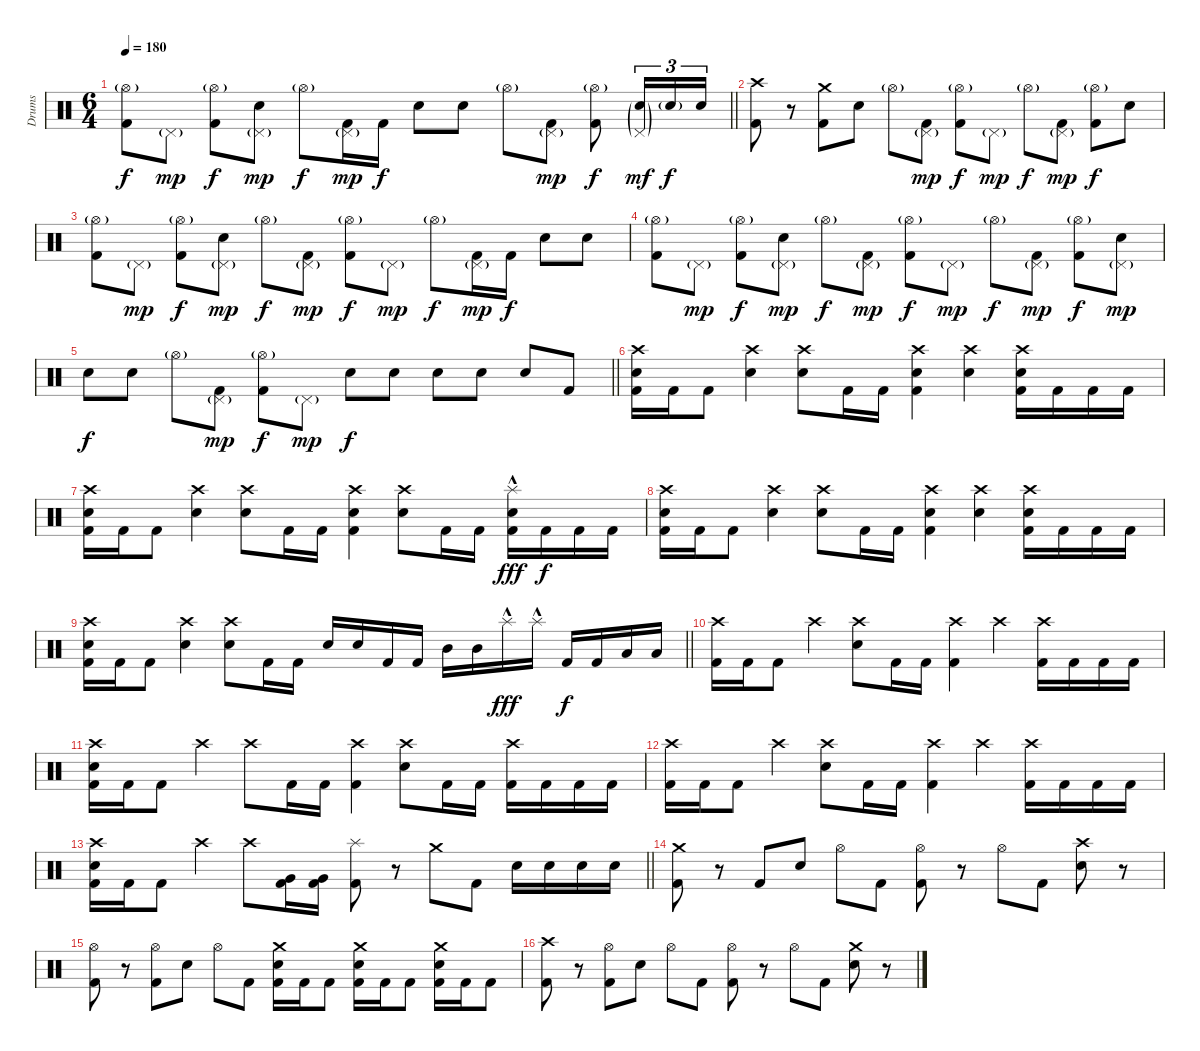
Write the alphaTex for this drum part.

\track ("Drums" "Drums") {instrument percussion}
\staff {score}
\articulation defaults
\ts (6 4)
\tempo 180
\clef neutral
\barLineRight lightlight
\ks c
("Hi-Hat (open)"{g} "Kick (hit) 2").8{dy f} "Pedal Hi-Hat (hit)"{g}.8{dy mp} ("Hi-Hat (open)"{g} "Kick (hit) 2").8{dy f} ("Pedal Hi-Hat (hit)"{g} "Electric Snare (hit)").8{dy mp} "Hi-Hat (open)"{g}.8{dy f} ("Pedal Hi-Hat (hit)"{g} "Kick (hit) 2").16{dy mp} "Kick (hit) 2".16{dy f} "Electric Snare (hit)".8 "Electric Snare (hit)".8 "Hi-Hat (open)"{g}.8 ("Pedal Hi-Hat (hit)"{g} "Kick (hit) 2").8{dy mp} ("Hi-Hat (open)"{g} "Kick (hit) 2").8{dy f} ("Pedal Hi-Hat (hit)"{g} "Electric Snare (hit)"{g}).16{tu (3 2) dy mf} "Electric Snare (hit)"{g}.16{tu (3 2) dy f} "Electric Snare (hit)".16{tu (3 2)} |
("Crash high (hit)" "Kick (hit) 2").8 r.8 ("Crash medium (hit)" "Kick (hit) 2").8 "Electric Snare (hit)".8 "Hi-Hat (open)"{g}.8 ("Pedal Hi-Hat (hit)"{g} "Kick (hit) 2").8{dy mp} ("Hi-Hat (open)"{g} "Kick (hit) 2").8{dy f} "Pedal Hi-Hat (hit)"{g}.8{dy mp} "Hi-Hat (open)"{g}.8{dy f} ("Pedal Hi-Hat (hit)"{g} "Kick (hit) 2").8{dy mp} ("Hi-Hat (open)"{g} "Kick (hit) 2").8{dy f} "Electric Snare (hit)".8 |
("Hi-Hat (open)"{g} "Kick (hit) 2").8 "Pedal Hi-Hat (hit)"{g}.8{dy mp} ("Hi-Hat (open)"{g} "Kick (hit) 2").8{dy f} ("Pedal Hi-Hat (hit)"{g} "Electric Snare (hit)").8{dy mp} "Hi-Hat (open)"{g}.8{dy f} ("Pedal Hi-Hat (hit)"{g} "Kick (hit) 2").8{dy mp} ("Hi-Hat (open)"{g} "Kick (hit) 2").8{dy f} "Pedal Hi-Hat (hit)"{g}.8{dy mp} "Hi-Hat (open)"{g}.8{dy f} ("Pedal Hi-Hat (hit)"{g} "Kick (hit) 2").16{dy mp} "Kick (hit) 2".16{dy f} "Electric Snare (hit)".8 "Electric Snare (hit)".8 |
("Hi-Hat (open)"{g} "Kick (hit) 2").8 "Pedal Hi-Hat (hit)"{g}.8{dy mp} ("Hi-Hat (open)"{g} "Kick (hit) 2").8{dy f} ("Pedal Hi-Hat (hit)"{g} "Electric Snare (hit)").8{dy mp} "Hi-Hat (open)"{g}.8{dy f} ("Pedal Hi-Hat (hit)"{g} "Kick (hit) 2").8{dy mp} ("Hi-Hat (open)"{g} "Kick (hit) 2").8{dy f} "Pedal Hi-Hat (hit)"{g}.8{dy mp} "Hi-Hat (open)"{g}.8{dy f} ("Pedal Hi-Hat (hit)"{g} "Kick (hit) 2").8{dy mp} ("Hi-Hat (open)"{g} "Kick (hit) 2").8{dy f} ("Pedal Hi-Hat (hit)"{g} "Electric Snare (hit)").8{dy mp} |
\barLineRight lightlight "Electric Snare (hit)".8{dy f} "Electric Snare (hit)".8 "Hi-Hat (open)"{g}.8
("Pedal Hi-Hat (hit)"{g} "Kick (hit) 2").8{dy mp} ("Hi-Hat (open)"{g} "Kick (hit) 2").8{dy f} "Pedal Hi-Hat (hit)"{g}.8{dy mp} "Electric Snare (hit)".8{dy f} "Electric Snare (hit)".8 "Electric Snare (hit)".8 "Electric Snare (hit)".8 "Electric Snare (hit)".8 "Kick (hit) 2".8 |
("Crash high (hit)" "Electric Snare (hit)" "Kick (hit) 2").16 "Kick (hit) 2".16 "Kick (hit) 2".8 ("Crash high (hit)" "Electric Snare (hit)").4 ("Crash high (hit)" "Electric Snare (hit)").8 "Kick (hit) 2".16 "Kick (hit) 2".16 ("Crash high (hit)" "Electric Snare (hit)" "Kick (hit) 2").4 ("Crash high (hit)" "Electric Snare (hit)").4 ("Crash high (hit)" "Electric Snare (hit)" "Kick (hit) 2").16 "Kick (hit) 2".16 "Kick (hit) 2".16 "Kick (hit) 2".16 |
("Crash high (hit)" "Electric Snare (hit)" "Kick (hit) 2").16 "Kick (hit) 2".16 "Kick (hit) 2".8 ("Crash high (hit)" "Electric Snare (hit)").4 ("Crash high (hit)" "Electric Snare (hit)").8 "Kick (hit) 2".16 "Kick (hit) 2".16 ("Crash high (hit)" "Electric Snare (hit)" "Kick (hit) 2").4 ("Crash high (hit)" "Electric Snare (hit)").8 "Kick (hit) 2".16 "Kick (hit) 2".16 ("Splash (hit)"{hac} "Electric Snare (hit)" "Kick (hit) 2").16{dy fff} "Kick (hit) 2".16{dy f} "Kick (hit) 2".16 "Kick (hit) 2".16 |
("Crash high (hit)" "Electric Snare (hit)" "Kick (hit) 2").16 "Kick (hit) 2".16 "Kick (hit) 2".8 ("Crash high (hit)" "Electric Snare (hit)").4 ("Crash high (hit)" "Electric Snare (hit)").8 "Kick (hit) 2".16 "Kick (hit) 2".16 ("Crash high (hit)" "Electric Snare (hit)" "Kick (hit) 2").4 ("Crash high (hit)" "Electric Snare (hit)").4 ("Crash high (hit)" "Electric Snare (hit)" "Kick (hit) 2").16 "Kick (hit) 2".16 "Kick (hit) 2".16 "Kick (hit) 2".16 |
\barLineRight lightlight
("Crash high (hit)" "Electric Snare (hit)" "Kick (hit) 2").16 "Kick (hit) 2".16 "Kick (hit) 2".8 ("Crash high (hit)" "Electric Snare (hit)").4 ("Crash high (hit)" "Electric Snare (hit)").8 "Kick (hit) 2".16 "Kick (hit) 2".16 "Electric Snare (hit)".16 "Electric Snare (hit)".16 "Kick (hit) 2".16 "Kick (hit) 2".16 "Mid Tom (hit)".16 "Mid Tom (hit)".16 "Splash (hit)"{hac}.16{dy fff} "Splash (hit)"{hac}.16 "Kick (hit) 2".16{dy f} "Kick (hit) 2".16 "Low Tom (hit)".16 "Low Tom (hit)".16 |
("Crash high (hit)" "Kick (hit) 2").16 "Kick (hit) 2".16 "Kick (hit) 2".8 "Crash high (hit)".4 ("Crash high (hit)" "Electric Snare (hit)").8 "Kick (hit) 2".16 "Kick (hit) 2".16 ("Crash high (hit)" "Kick (hit) 2").4 "Crash high (hit)".4 ("Crash high (hit)" "Kick (hit) 2").16 "Kick (hit) 2".16 "Kick (hit) 2".16 "Kick (hit) 2".16 |
("Crash high (hit)" "Electric Snare (hit)" "Kick (hit) 2").16 "Kick (hit) 2".16 "Kick (hit) 2".8 "Crash high (hit)".4 "Crash high (hit)".8 "Kick (hit) 2".16 "Kick (hit) 2".16 ("Crash high (hit)" "Kick (hit) 2").4 ("Crash high (hit)" "Electric Snare (hit)").8 "Kick (hit) 2".16 "Kick (hit) 2".16 ("Crash high (hit)" "Kick (hit) 2").16 "Kick (hit) 2".16 "Kick (hit) 2".16 "Kick (hit) 2".16 |
("Crash high (hit)" "Kick (hit) 2").16 "Kick (hit) 2".16 "Kick (hit) 2".8 "Crash high (hit)".4 ("Crash high (hit)" "Electric Snare (hit)").8 "Kick (hit) 2".16 "Kick (hit) 2".16 ("Crash high (hit)" "Kick (hit) 2").4 "Crash high (hit)".4 ("Crash high (hit)" "Kick (hit) 2").16 "Kick (hit) 2".16 "Kick (hit) 2".16 "Kick (hit) 2".16 |
\barLineRight lightlight
("Crash high (hit)" "Electric Snare (hit)" "Kick (hit) 2").16 "Kick (hit) 2".16 "Kick (hit) 2".8 "Crash high (hit)".4 "Crash high (hit)".8 ("Very Low Tom (hit)" "Kick (hit) 2").16 ("Very Low Tom (hit)" "Kick (hit) 2").16 ("Splash (hit)" "Kick (hit) 2").8 r.8 "Crash medium (hit)".8 "Kick (hit) 2".8 "Electric Snare (hit)".16 "Electric Snare (hit)".16 "Electric Snare (hit)".16 "Electric Snare (hit)".16 |
("Crash medium (hit)" "Kick (hit) 2").8 r.8 "Kick (hit) 2".8 "Electric Snare (hit)".8 "Hi-Hat (open)".8 "Kick (hit) 2".8 ("Hi-Hat (open)" "Kick (hit) 2").8 r.8 "Hi-Hat (open)".8 "Kick (hit) 2".8 ("Crash high (hit)" "Electric Snare (hit)").8 r.8 |
("Hi-Hat (open)" "Kick (hit) 2").8 r.8 ("Hi-Hat (open)" "Kick (hit) 2").8 "Electric Snare (hit)".8 "Hi-Hat (open)".8 "Kick (hit) 2".8 ("Crash medium (hit)" "Electric Snare (hit)" "Kick (hit) 2").16 "Kick (hit) 2".16 "Kick (hit) 2".8 ("Crash medium (hit)" "Electric Snare (hit)" "Kick (hit) 2").16 "Kick (hit) 2".16 "Kick (hit) 2".8 ("Crash medium (hit)" "Electric Snare (hit)" "Kick (hit) 2").16 "Kick (hit) 2".16 "Kick (hit) 2".8 |
("Crash high (hit)" "Kick (hit) 2").8 r.8 ("Hi-Hat (open)" "Kick (hit) 2").8 "Electric Snare (hit)".8 "Hi-Hat (open)".8 "Kick (hit) 2".8 ("Hi-Hat (open)" "Kick (hit) 2").8 r.8 "Hi-Hat (open)".8 "Kick (hit) 2".8 ("Crash medium (hit)" "Electric Snare (hit)").8 r.8
